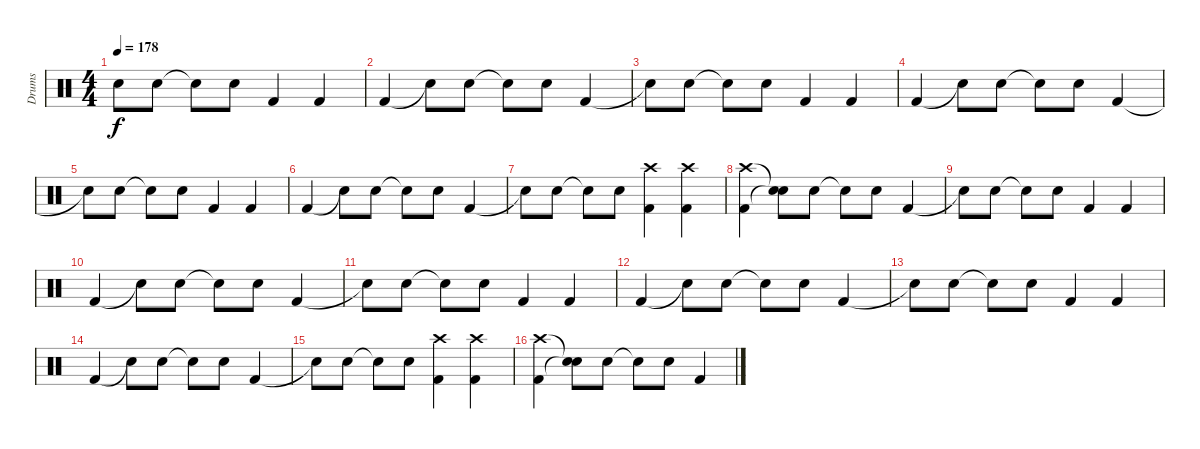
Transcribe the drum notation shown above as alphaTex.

\track ("Drums" "Drums") {mute instrument percussion}
\staff {score}
\articulation defaults
\ts (4 4)
\tempo 178
\clef neutral
\ks c "Snare (hit)"{t}.8{dy f} "Electric Snare (hit)".8 "Snare (hit)"{t}.8 "Electric Snare (hit)".8 "Kick (hit) 2".4 "Kick (hit) 2".4
|
"Kick (hit) 2".4 "Snare (hit)"{t}.8 "Electric Snare (hit)".8 "Snare (hit)"{t}.8 "Electric Snare (hit)".8 "Kick (hit) 2".4 |
"Snare (hit)"{t}.8 "Electric Snare (hit)".8 "Snare (hit)"{t}.8 "Electric Snare (hit)".8 "Kick (hit) 2".4 "Kick (hit) 2".4 |
"Kick (hit) 2".4 "Snare (hit)"{t}.8 "Electric Snare (hit)".8 "Snare (hit)"{t}.8 "Electric Snare (hit)".8 "Kick (hit) 2".4 |
"Snare (hit)"{t}.8 "Electric Snare (hit)".8 "Snare (hit)"{t}.8 "Electric Snare (hit)".8 "Kick (hit) 2".4 "Kick (hit) 2".4 |
"Kick (hit) 2".4 "Snare (hit)"{t}.8 "Electric Snare (hit)".8 "Snare (hit)"{t}.8 "Electric Snare (hit)".8 "Kick (hit) 2".4 |
"Snare (hit)"{t}.8 "Electric Snare (hit)".8 "Snare (hit)"{t}.8 "Electric Snare (hit)".8 ("Crash high (hit)" "Kick (hit) 2").4 ("Crash high (hit)" "Kick (hit) 2").4 |
("Crash high (hit)" "Kick (hit) 2").4 ("Snare (hit)"{t} "Snare (hit)"{t}).8 "Electric Snare (hit)".8 "Snare (hit)"{t}.8 "Electric Snare (hit)".8 "Kick (hit) 2".4 |
"Snare (hit)"{t}.8 "Electric Snare (hit)".8 "Snare (hit)"{t}.8 "Electric Snare (hit)".8 "Kick (hit) 2".4 "Kick (hit) 2".4 |
"Kick (hit) 2".4 "Snare (hit)"{t}.8 "Electric Snare (hit)".8 "Snare (hit)"{t}.8 "Electric Snare (hit)".8 "Kick (hit) 2".4 |
"Snare (hit)"{t}.8 "Electric Snare (hit)".8 "Snare (hit)"{t}.8 "Electric Snare (hit)".8 "Kick (hit) 2".4 "Kick (hit) 2".4 |
"Kick (hit) 2".4 "Snare (hit)"{t}.8 "Electric Snare (hit)".8 "Snare (hit)"{t}.8 "Electric Snare (hit)".8 "Kick (hit) 2".4 |
"Snare (hit)"{t}.8 "Electric Snare (hit)".8 "Snare (hit)"{t}.8 "Electric Snare (hit)".8 "Kick (hit) 2".4 "Kick (hit) 2".4 |
"Kick (hit) 2".4 "Snare (hit)"{t}.8 "Electric Snare (hit)".8 "Snare (hit)"{t}.8 "Electric Snare (hit)".8 "Kick (hit) 2".4 |
"Snare (hit)"{t}.8 "Electric Snare (hit)".8 "Snare (hit)"{t}.8 "Electric Snare (hit)".8 ("Crash high (hit)" "Kick (hit) 2").4 ("Crash high (hit)" "Kick (hit) 2").4 |
("Crash high (hit)" "Kick (hit) 2").4 ("Snare (hit)"{t} "Snare (hit)"{t}).8 "Electric Snare (hit)".8 "Snare (hit)"{t}.8 "Electric Snare (hit)".8 "Kick (hit) 2".4
